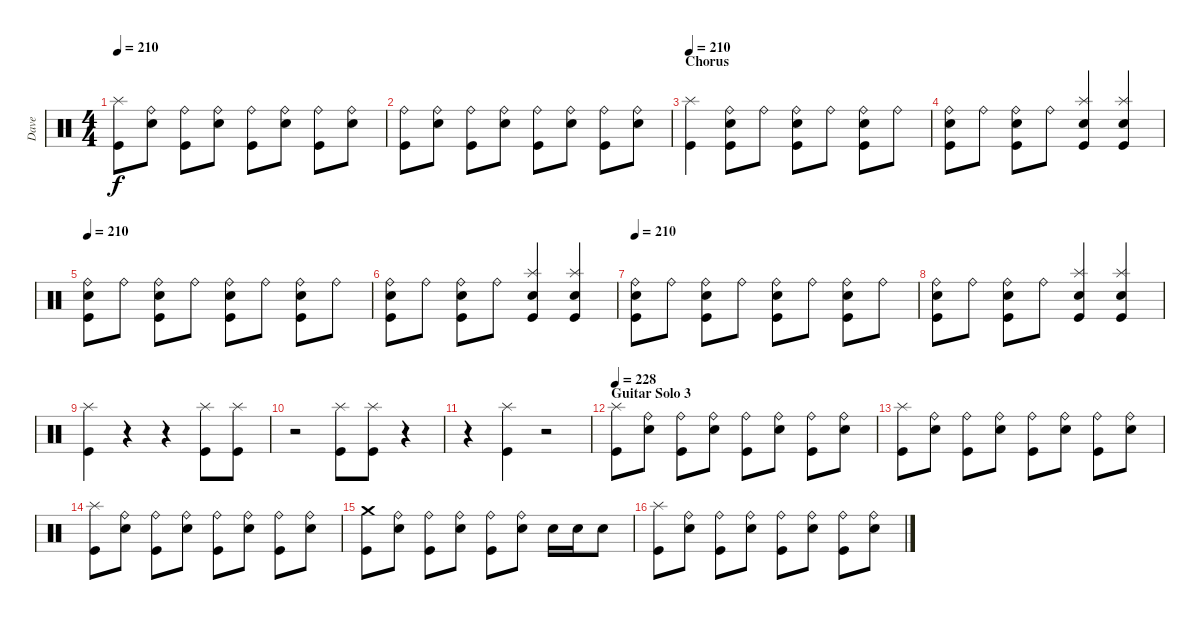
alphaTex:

\track ("Dave" "Dave") {instrument percussion}
\staff {score}
\articulation defaults
\ts (4 4)
\tempo 210
\clef neutral
\ks c
("Kick (hit)" "Splash (hit)").8{dy f} ("Electric Snare (hit)" "Ride (bell)").8 ("Kick (hit)" "Ride (bell)").8 ("Electric Snare (hit)" "Ride (bell)").8 ("Kick (hit)" "Ride (bell)").8 ("Electric Snare (hit)" "Ride (bell)").8 ("Kick (hit)" "Ride (bell)").8 ("Electric Snare (hit)" "Ride (bell)").8 |
("Kick (hit)" "Ride (bell)").8 ("Electric Snare (hit)" "Ride (bell)").8 ("Kick (hit)" "Ride (bell)").8 ("Electric Snare (hit)" "Ride (bell)").8 ("Kick (hit)" "Ride (bell)").8 ("Electric Snare (hit)" "Ride (bell)").8 ("Kick (hit)" "Ride (bell)").8 ("Electric Snare (hit)" "Ride (bell)").8 |
\section ("" "Chorus")
\tempo 210
("Kick (hit)" "Splash (hit)").4 ("Kick (hit)" "Electric Snare (hit)" "Ride (bell)").8 "Ride (bell)".8 ("Kick (hit)" "Electric Snare (hit)" "Ride (bell)").8 "Ride (bell)".8 ("Kick (hit)" "Electric Snare (hit)" "Ride (bell)").8 "Ride (bell)".8 |
("Kick (hit)" "Electric Snare (hit)" "Ride (bell)").8 "Ride (bell)".8 ("Kick (hit)" "Electric Snare (hit)" "Ride (bell)").8 "Ride (bell)".8 ("Kick (hit)" "Electric Snare (hit)" "Splash (hit)").4 ("Kick (hit)" "Electric Snare (hit)" "Splash (hit)").4 |
\tempo 210
("Kick (hit)" "Electric Snare (hit)" "Ride (bell)").8 "Ride (bell)".8 ("Kick (hit)" "Electric Snare (hit)" "Ride (bell)").8 "Ride (bell)".8 ("Kick (hit)" "Electric Snare (hit)" "Ride (bell)").8 "Ride (bell)".8 ("Kick (hit)" "Electric Snare (hit)" "Ride (bell)").8 "Ride (bell)".8 |
("Kick (hit)" "Electric Snare (hit)" "Ride (bell)").8 "Ride (bell)".8 ("Kick (hit)" "Electric Snare (hit)" "Ride (bell)").8 "Ride (bell)".8 ("Kick (hit)" "Electric Snare (hit)" "Splash (hit)").4 ("Kick (hit)" "Electric Snare (hit)" "Splash (hit)").4 |
\tempo 210
("Kick (hit)" "Electric Snare (hit)" "Ride (bell)").8 "Ride (bell)".8 ("Kick (hit)" "Electric Snare (hit)" "Ride (bell)").8 "Ride (bell)".8 ("Kick (hit)" "Electric Snare (hit)" "Ride (bell)").8 "Ride (bell)".8 ("Kick (hit)" "Electric Snare (hit)" "Ride (bell)").8 "Ride (bell)".8 |
("Kick (hit)" "Electric Snare (hit)" "Ride (bell)").8 "Ride (bell)".8 ("Kick (hit)" "Electric Snare (hit)" "Ride (bell)").8 "Ride (bell)".8 ("Kick (hit)" "Electric Snare (hit)" "Splash (hit)").4 ("Kick (hit)" "Electric Snare (hit)" "Splash (hit)").4 |
("Kick (hit)" "Splash (hit)").4 r.4 r.4 ("Kick (hit)" "Splash (hit)").8 ("Kick (hit)" "Splash (hit)").8 |
r.2 ("Kick (hit)" "Splash (hit)").8 ("Kick (hit)" "Splash (hit)").8 r.4 |
r.4 ("Kick (hit)" "Splash (hit)").4 r.2 |
\section ("" "Guitar Solo 3")
\tempo 228
("Kick (hit)" "Splash (hit)").8 ("Electric Snare (hit)" "Ride (bell)").8 ("Kick (hit)" "Ride (bell)").8 ("Electric Snare (hit)" "Ride (bell)").8 ("Kick (hit)" "Ride (bell)").8 ("Electric Snare (hit)" "Ride (bell)").8 ("Kick (hit)" "Ride (bell)").8 ("Electric Snare (hit)" "Ride (bell)").8 |
("Kick (hit)" "Splash (hit)").8 ("Electric Snare (hit)" "Ride (bell)").8 ("Kick (hit)" "Ride (bell)").8 ("Electric Snare (hit)" "Ride (bell)").8 ("Kick (hit)" "Ride (bell)").8 ("Electric Snare (hit)" "Ride (bell)").8 ("Kick (hit)" "Ride (bell)").8 ("Electric Snare (hit)" "Ride (bell)").8 |
("Kick (hit)" "Splash (hit)").8 ("Electric Snare (hit)" "Ride (bell)").8 ("Kick (hit)" "Ride (bell)").8 ("Electric Snare (hit)" "Ride (bell)").8 ("Kick (hit)" "Ride (bell)").8 ("Electric Snare (hit)" "Ride (bell)").8 ("Kick (hit)" "Ride (bell)").8 ("Electric Snare (hit)" "Ride (bell)").8 |
("Kick (hit)" "Crash medium (hit)").8 ("Electric Snare (hit)" "Ride (bell)").8 ("Kick (hit)" "Ride (bell)").8 ("Electric Snare (hit)" "Ride (bell)").8 ("Kick (hit)" "Ride (bell)").8 ("Electric Snare (hit)" "Ride (bell)").8 "Electric Snare (hit)".16 "Electric Snare (hit)".16 "Electric Snare (hit)".8 |
("Kick (hit)" "Splash (hit)").8 ("Electric Snare (hit)" "Ride (bell)").8 ("Kick (hit)" "Ride (bell)").8 ("Electric Snare (hit)" "Ride (bell)").8 ("Kick (hit)" "Ride (bell)").8 ("Electric Snare (hit)" "Ride (bell)").8 ("Kick (hit)" "Ride (bell)").8 ("Electric Snare (hit)" "Ride (bell)").8
